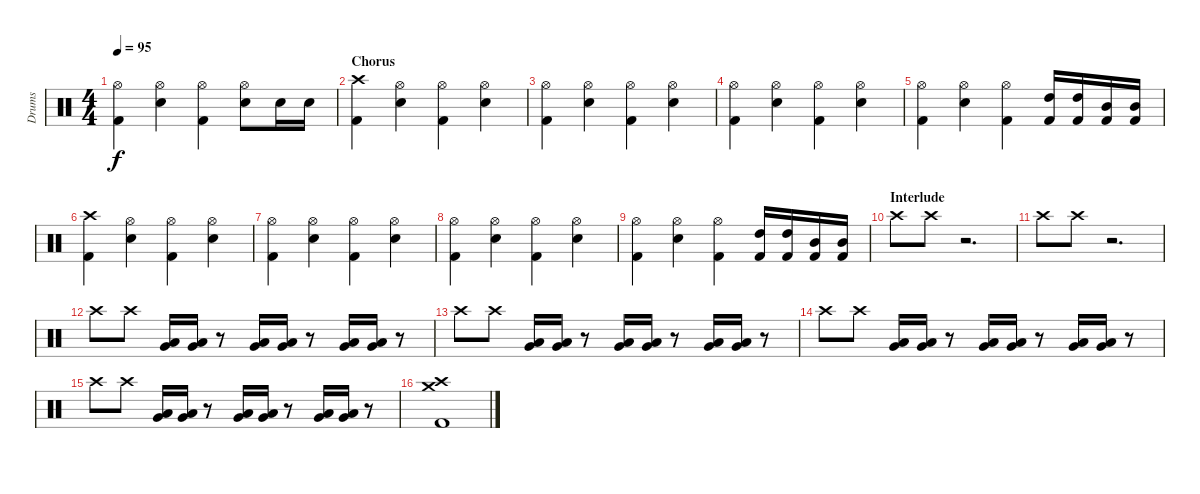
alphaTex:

\track ("Drums" "Drums") {instrument percussion}
\staff {score}
\articulation defaults
\ts (4 4)
\tempo 95
\clef neutral
\ks c
("Hi-Hat (open)" "Kick (hit) 2").4{dy f} ("Hi-Hat (open)" "Electric Snare (hit)").4 ("Hi-Hat (open)" "Kick (hit) 2").4 ("Hi-Hat (open)" "Electric Snare (hit)").8 "Electric Snare (hit)".16 "Electric Snare (hit)".16 |
\section ("" "Chorus")
("Crash high (hit)" "Kick (hit) 2").4 ("Hi-Hat (open)" "Electric Snare (hit)").4 ("Hi-Hat (open)" "Kick (hit) 2").4 ("Hi-Hat (open)" "Electric Snare (hit)").4 |
("Hi-Hat (open)" "Kick (hit) 2").4 ("Hi-Hat (open)" "Electric Snare (hit)").4 ("Hi-Hat (open)" "Kick (hit) 2").4 ("Hi-Hat (open)" "Electric Snare (hit)").4 |
("Hi-Hat (open)" "Kick (hit) 2").4 ("Hi-Hat (open)" "Electric Snare (hit)").4 ("Hi-Hat (open)" "Kick (hit) 2").4 ("Hi-Hat (open)" "Electric Snare (hit)").4 |
("Hi-Hat (open)" "Kick (hit) 2").4 ("Hi-Hat (open)" "Electric Snare (hit)").4 ("Hi-Hat (open)" "Kick (hit) 2").4 ("High Tom (hit)" "Kick (hit) 2").16 ("High Tom (hit)" "Kick (hit) 2").16 ("Mid Tom (hit)" "Kick (hit) 2").16 ("Mid Tom (hit)" "Kick (hit) 2").16 |
("Crash high (hit)" "Kick (hit) 2").4 ("Hi-Hat (open)" "Electric Snare (hit)").4 ("Hi-Hat (open)" "Kick (hit) 2").4 ("Hi-Hat (open)" "Electric Snare (hit)").4 |
("Hi-Hat (open)" "Kick (hit) 2").4 ("Hi-Hat (open)" "Electric Snare (hit)").4 ("Hi-Hat (open)" "Kick (hit) 2").4 ("Hi-Hat (open)" "Electric Snare (hit)").4 |
("Hi-Hat (open)" "Kick (hit) 2").4 ("Hi-Hat (open)" "Electric Snare (hit)").4 ("Hi-Hat (open)" "Kick (hit) 2").4 ("Hi-Hat (open)" "Electric Snare (hit)").4 |
("Hi-Hat (open)" "Kick (hit) 2").4 ("Hi-Hat (open)" "Electric Snare (hit)").4 ("Hi-Hat (open)" "Kick (hit) 2").4 ("High Tom (hit)" "Kick (hit) 2").16 ("High Tom (hit)" "Kick (hit) 2").16 ("Mid Tom (hit)" "Kick (hit) 2").16 ("Mid Tom (hit)" "Kick (hit) 2").16 |
\section ("" "Interlude")
"Crash high (hit)".8 "Crash high (hit)".8 r.2{d} |
"Crash high (hit)".8 "Crash high (hit)".8 r.2{d} |
"Crash high (hit)".8 "Crash high (hit)".8 ("Very Low Tom (hit)" "Low Tom (hit)").16 ("Very Low Tom (hit)" "Low Tom (hit)").16 r.8 ("Very Low Tom (hit)" "Low Tom (hit)").16 ("Very Low Tom (hit)" "Low Tom (hit)").16 r.8 ("Very Low Tom (hit)" "Low Tom (hit)").16 ("Very Low Tom (hit)" "Low Tom (hit)").16 r.8 |
"Crash high (hit)".8 "Crash high (hit)".8 ("Very Low Tom (hit)" "Low Tom (hit)").16 ("Very Low Tom (hit)" "Low Tom (hit)").16 r.8 ("Very Low Tom (hit)" "Low Tom (hit)").16 ("Very Low Tom (hit)" "Low Tom (hit)").16 r.8 ("Very Low Tom (hit)" "Low Tom (hit)").16 ("Very Low Tom (hit)" "Low Tom (hit)").16 r.8 |
"Crash high (hit)".8 "Crash high (hit)".8 ("Very Low Tom (hit)" "Low Tom (hit)").16 ("Very Low Tom (hit)" "Low Tom (hit)").16 r.8 ("Very Low Tom (hit)" "Low Tom (hit)").16 ("Very Low Tom (hit)" "Low Tom (hit)").16 r.8 ("Very Low Tom (hit)" "Low Tom (hit)").16 ("Very Low Tom (hit)" "Low Tom (hit)").16 r.8 |
"Crash high (hit)".8 "Crash high (hit)".8 ("Very Low Tom (hit)" "Low Tom (hit)").16 ("Very Low Tom (hit)" "Low Tom (hit)").16 r.8 ("Very Low Tom (hit)" "Low Tom (hit)").16 ("Very Low Tom (hit)" "Low Tom (hit)").16 r.8 ("Very Low Tom (hit)" "Low Tom (hit)").16 ("Very Low Tom (hit)" "Low Tom (hit)").16 r.8 |
("Crash high (hit)" "Crash medium (hit)" "Kick (hit) 2").1
